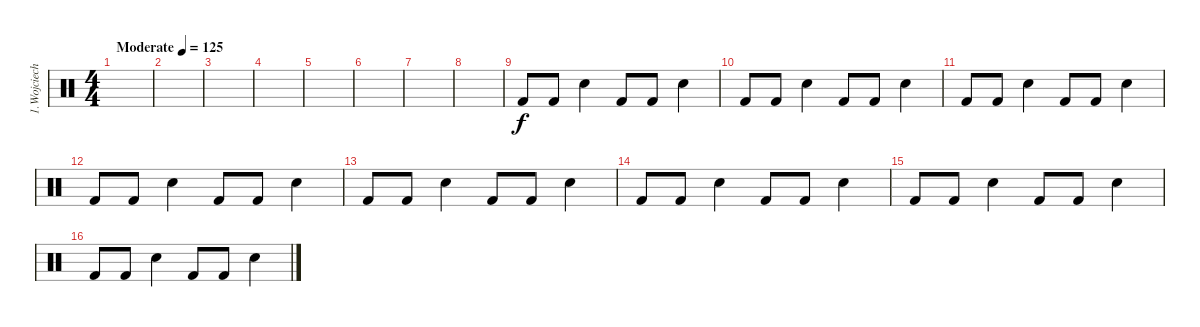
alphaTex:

\track ("1.Wojciech Kuderski (\"Lala\")" "1.Wojciech") {instrument percussion}
\staff {score}
\articulation defaults
\ts (4 4)
\tempo (125 "Moderate")
\clef neutral
\ks c
|
|
|
|
|
|
|
|
"Kick (hit) 2".8 "Kick (hit) 2".8 "Electric Snare (hit)".4 "Kick (hit) 2".8 "Kick (hit) 2".8 "Electric Snare (hit)".4 |
"Kick (hit) 2".8 "Kick (hit) 2".8 "Electric Snare (hit)".4 "Kick (hit) 2".8 "Kick (hit) 2".8 "Electric Snare (hit)".4 |
"Kick (hit) 2".8 "Kick (hit) 2".8 "Electric Snare (hit)".4 "Kick (hit) 2".8 "Kick (hit) 2".8 "Electric Snare (hit)".4 |
"Kick (hit) 2".8 "Kick (hit) 2".8 "Electric Snare (hit)".4 "Kick (hit) 2".8 "Kick (hit) 2".8 "Electric Snare (hit)".4 |
"Kick (hit) 2".8 "Kick (hit) 2".8 "Electric Snare (hit)".4 "Kick (hit) 2".8 "Kick (hit) 2".8 "Electric Snare (hit)".4 |
"Kick (hit) 2".8 "Kick (hit) 2".8 "Electric Snare (hit)".4 "Kick (hit) 2".8 "Kick (hit) 2".8 "Electric Snare (hit)".4 |
"Kick (hit) 2".8 "Kick (hit) 2".8 "Electric Snare (hit)".4 "Kick (hit) 2".8 "Kick (hit) 2".8 "Electric Snare (hit)".4 |
"Kick (hit) 2".8 "Kick (hit) 2".8 "Electric Snare (hit)".4 "Kick (hit) 2".8 "Kick (hit) 2".8 "Electric Snare (hit)".4
